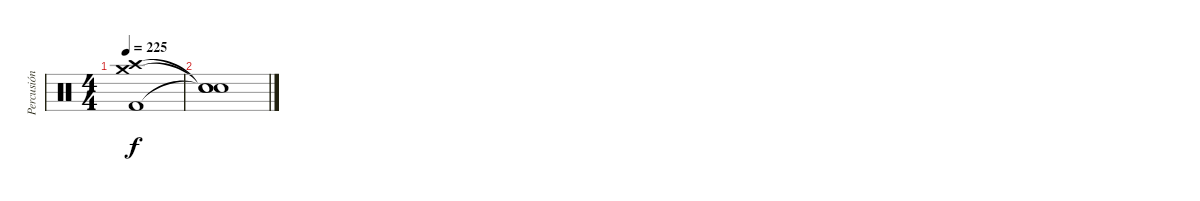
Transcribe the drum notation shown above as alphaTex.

\track ("Percusión" "Percusión") {instrument percussion}
\staff {score}
\articulation defaults
\ts (4 4)
\tempo 225
\clef neutral
\ks c
("Crash high (hit)" "Crash medium (hit)" "Kick (hit) 2").1{dy f} |
("Snare (hit)"{t} "Snare (hit)"{t} "Snare (hit)"{t}).1
